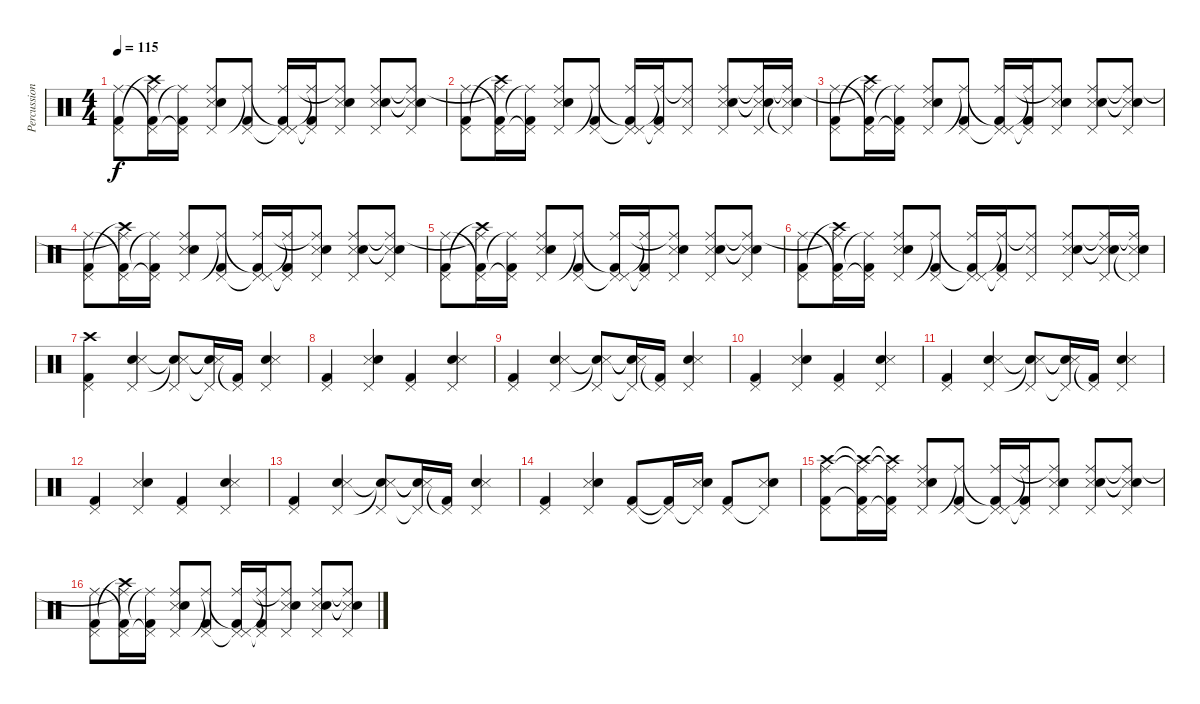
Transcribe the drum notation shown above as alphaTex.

\track ("Percussioni" "Percussion") {instrument percussion}
\staff {score}
\articulation defaults
\ts (4 4)
\tempo 115
\clef neutral
\ks c
("Pedal Hi-Hat (hit)" "Kick (hit) 2" "Ride (middle)").8{dy f} ("Pedal Hi-Hat (hit)" "Crash high (hit)"{t} "Kick (hit) 2"{t} "Ride (middle)"{t}).16 ("Pedal Hi-Hat (hit)"{t} "Kick (hit) 2" "Ride (middle)"{t}).16 ("Snare (side stick) 3" "Electric Snare (hit)" "Pedal Hi-Hat (hit)" "Ride (middle)").8 ("Pedal Hi-Hat (hit)" "Kick (hit) 2" "Ride (middle)"{t}).8 ("Pedal Hi-Hat (hit)"{t} "Pedal Hi-Hat (hit)" "Kick (hit) 2"{t} "Ride (middle)").16 ("Pedal Hi-Hat (hit)"{t} "Kick (hit) 2" "Ride (middle)"{t}).16 ("Snare (side stick) 3" "Pedal Hi-Hat (hit)" "Electric Snare (hit)" "Ride (middle)"{t}).8 ("Snare (side stick) 3" "Electric Snare (hit)" "Pedal Hi-Hat (hit)" "Ride (middle)").8 ("Snare (side stick) 3"{t} "Electric Snare (hit)"{t} "Pedal Hi-Hat (hit)" "Ride (middle)"{t}).8 |
("Pedal Hi-Hat (hit)" "Kick (hit) 2" "Ride (middle)").8 ("Pedal Hi-Hat (hit)" "Crash high (hit)"{t} "Kick (hit) 2"{t} "Ride (middle)"{t}).16 ("Pedal Hi-Hat (hit)"{t} "Kick (hit) 2" "Ride (middle)"{t}).16 ("Snare (side stick) 3" "Electric Snare (hit)" "Pedal Hi-Hat (hit)" "Ride (middle)").8 ("Pedal Hi-Hat (hit)" "Kick (hit) 2" "Ride (middle)"{t}).8 ("Pedal Hi-Hat (hit)"{t} "Pedal Hi-Hat (hit)" "Kick (hit) 2"{t} "Ride (middle)").16 ("Pedal Hi-Hat (hit)"{t} "Kick (hit) 2" "Ride (middle)"{t}).16 ("Snare (side stick) 3" "Pedal Hi-Hat (hit)" "Ride (middle)"{t}).8 ("Snare (side stick) 3" "Electric Snare (hit)" "Pedal Hi-Hat (hit)" "Ride (middle)").8 ("Snare (side stick) 3"{t} "Electric Snare (hit)"{t} "Pedal Hi-Hat (hit)" "Ride (middle)"{t}).16 ("Pedal Hi-Hat (hit)"{t} "Snare (side stick) 3" "Electric Snare (hit)" "Ride (middle)"{t}).16 |
("Pedal Hi-Hat (hit)" "Kick (hit) 2" "Ride (middle)").8 ("Pedal Hi-Hat (hit)" "Crash high (hit)"{t} "Kick (hit) 2"{t} "Ride (middle)"{t}).16 ("Pedal Hi-Hat (hit)"{t} "Kick (hit) 2" "Ride (middle)"{t}).16 ("Snare (side stick) 3" "Electric Snare (hit)" "Pedal Hi-Hat (hit)" "Ride (middle)").8 ("Pedal Hi-Hat (hit)" "Kick (hit) 2" "Ride (middle)"{t}).8 ("Pedal Hi-Hat (hit)"{t} "Pedal Hi-Hat (hit)" "Kick (hit) 2"{t} "Ride (middle)").16 ("Pedal Hi-Hat (hit)"{t} "Kick (hit) 2" "Ride (middle)"{t}).16 ("Snare (side stick) 3" "Pedal Hi-Hat (hit)" "Electric Snare (hit)" "Ride (middle)"{t}).8 ("Snare (side stick) 3" "Electric Snare (hit)" "Pedal Hi-Hat (hit)" "Ride (middle)").8 ("Snare (side stick) 3"{t} "Electric Snare (hit)"{t} "Pedal Hi-Hat (hit)" "Ride (middle)"{t}).8 |
("Pedal Hi-Hat (hit)" "Kick (hit) 2" "Ride (middle)").8 ("Pedal Hi-Hat (hit)" "Crash high (hit)"{t} "Kick (hit) 2"{t} "Ride (middle)"{t}).16 ("Pedal Hi-Hat (hit)"{t} "Kick (hit) 2" "Ride (middle)"{t}).16 ("Snare (side stick) 3" "Electric Snare (hit)" "Pedal Hi-Hat (hit)" "Ride (middle)").8 ("Pedal Hi-Hat (hit)" "Kick (hit) 2" "Ride (middle)"{t}).8 ("Pedal Hi-Hat (hit)"{t} "Pedal Hi-Hat (hit)" "Kick (hit) 2"{t} "Ride (middle)").16 ("Pedal Hi-Hat (hit)"{t} "Kick (hit) 2" "Ride (middle)"{t}).16 ("Snare (side stick) 3" "Pedal Hi-Hat (hit)" "Electric Snare (hit)" "Ride (middle)"{t}).8 ("Snare (side stick) 3" "Electric Snare (hit)" "Pedal Hi-Hat (hit)" "Ride (middle)").8 ("Snare (side stick) 3"{t} "Electric Snare (hit)"{t} "Pedal Hi-Hat (hit)" "Ride (middle)"{t}).8 |
("Pedal Hi-Hat (hit)" "Kick (hit) 2" "Ride (middle)").8 ("Pedal Hi-Hat (hit)" "Crash high (hit)"{t} "Kick (hit) 2"{t} "Ride (middle)"{t}).16 ("Pedal Hi-Hat (hit)"{t} "Kick (hit) 2" "Ride (middle)"{t}).16 ("Snare (side stick) 3" "Electric Snare (hit)" "Pedal Hi-Hat (hit)" "Ride (middle)").8 ("Pedal Hi-Hat (hit)" "Kick (hit) 2" "Ride (middle)"{t}).8 ("Pedal Hi-Hat (hit)"{t} "Pedal Hi-Hat (hit)" "Kick (hit) 2"{t} "Ride (middle)").16 ("Pedal Hi-Hat (hit)"{t} "Kick (hit) 2" "Ride (middle)"{t}).16 ("Snare (side stick) 3" "Pedal Hi-Hat (hit)" "Electric Snare (hit)" "Ride (middle)"{t}).8 ("Snare (side stick) 3" "Electric Snare (hit)" "Pedal Hi-Hat (hit)" "Ride (middle)").8 ("Snare (side stick) 3"{t} "Electric Snare (hit)"{t} "Pedal Hi-Hat (hit)" "Ride (middle)"{t}).8 |
("Pedal Hi-Hat (hit)" "Kick (hit) 2" "Ride (middle)").8 ("Pedal Hi-Hat (hit)" "Crash high (hit)"{t} "Kick (hit) 2"{t} "Ride (middle)"{t}).16 ("Pedal Hi-Hat (hit)"{t} "Kick (hit) 2" "Ride (middle)"{t}).16 ("Snare (side stick) 3" "Electric Snare (hit)" "Pedal Hi-Hat (hit)" "Ride (middle)").8 ("Pedal Hi-Hat (hit)" "Kick (hit) 2" "Ride (middle)"{t}).8 ("Pedal Hi-Hat (hit)"{t} "Pedal Hi-Hat (hit)" "Kick (hit) 2"{t} "Ride (middle)").16 ("Pedal Hi-Hat (hit)"{t} "Kick (hit) 2" "Ride (middle)"{t}).16 ("Snare (side stick) 3" "Pedal Hi-Hat (hit)" "Ride (middle)"{t}).8 ("Snare (side stick) 3" "Electric Snare (hit)" "Pedal Hi-Hat (hit)" "Ride (middle)").8 ("Snare (side stick) 3"{t} "Electric Snare (hit)"{t} "Pedal Hi-Hat (hit)" "Ride (middle)"{t}).16 ("Pedal Hi-Hat (hit)"{t} "Snare (side stick) 3" "Electric Snare (hit)" "Ride (middle)"{t}).16 |
("Kick (hit) 2" "Pedal Hi-Hat (hit)" "Crash high (hit)").4 ("Electric Snare (hit)" "Pedal Hi-Hat (hit)" "Snare (side stick) 3").4 ("Pedal Hi-Hat (hit)" "Electric Snare (hit)"{t} "Snare (side stick) 3"{t}).8 ("Pedal Hi-Hat (hit)"{t} "Electric Snare (hit)"{t} "Snare (side stick) 3"{t}).16 ("Kick (hit) 2" "Pedal Hi-Hat (hit)"{t}).16 ("Electric Snare (hit)" "Pedal Hi-Hat (hit)" "Snare (side stick) 3").4 |
("Kick (hit) 2" "Pedal Hi-Hat (hit)").4 ("Snare (side stick) 3" "Pedal Hi-Hat (hit)" "Electric Snare (hit)").4 ("Kick (hit) 2" "Pedal Hi-Hat (hit)").4 ("Electric Snare (hit)" "Pedal Hi-Hat (hit)" "Snare (side stick) 3").4 |
("Kick (hit) 2" "Pedal Hi-Hat (hit)").4 ("Electric Snare (hit)" "Pedal Hi-Hat (hit)" "Snare (side stick) 3").4 ("Pedal Hi-Hat (hit)" "Electric Snare (hit)"{t} "Snare (side stick) 3"{t}).8 ("Pedal Hi-Hat (hit)"{t} "Electric Snare (hit)"{t} "Snare (side stick) 3"{t}).16 ("Kick (hit) 2" "Pedal Hi-Hat (hit)"{t}).16 ("Electric Snare (hit)" "Pedal Hi-Hat (hit)" "Snare (side stick) 3").4 |
("Kick (hit) 2" "Pedal Hi-Hat (hit)").4 ("Snare (side stick) 3" "Pedal Hi-Hat (hit)" "Electric Snare (hit)").4 ("Kick (hit) 2" "Pedal Hi-Hat (hit)").4 ("Electric Snare (hit)" "Pedal Hi-Hat (hit)" "Snare (side stick) 3").4 |
("Kick (hit) 2" "Pedal Hi-Hat (hit)").4 ("Electric Snare (hit)" "Pedal Hi-Hat (hit)" "Snare (side stick) 3").4 ("Pedal Hi-Hat (hit)" "Electric Snare (hit)"{t} "Snare (side stick) 3"{t}).8 ("Pedal Hi-Hat (hit)"{t} "Electric Snare (hit)"{t} "Snare (side stick) 3"{t}).16 ("Kick (hit) 2" "Pedal Hi-Hat (hit)"{t}).16 ("Electric Snare (hit)" "Pedal Hi-Hat (hit)" "Snare (side stick) 3").4 |
("Kick (hit) 2" "Pedal Hi-Hat (hit)").4 ("Snare (side stick) 3" "Pedal Hi-Hat (hit)" "Electric Snare (hit)").4 ("Kick (hit) 2" "Pedal Hi-Hat (hit)").4 ("Electric Snare (hit)" "Pedal Hi-Hat (hit)" "Snare (side stick) 3").4 |
("Kick (hit) 2" "Pedal Hi-Hat (hit)").4 ("Electric Snare (hit)" "Pedal Hi-Hat (hit)" "Snare (side stick) 3").4 ("Pedal Hi-Hat (hit)" "Electric Snare (hit)"{t} "Snare (side stick) 3"{t}).8 ("Pedal Hi-Hat (hit)"{t} "Electric Snare (hit)"{t} "Snare (side stick) 3"{t}).16 ("Kick (hit) 2" "Pedal Hi-Hat (hit)"{t}).16 ("Electric Snare (hit)" "Pedal Hi-Hat (hit)" "Snare (side stick) 3").4 |
("Kick (hit) 2" "Pedal Hi-Hat (hit)").4 ("Snare (side stick) 3" "Pedal Hi-Hat (hit)" "Electric Snare (hit)").4 ("Kick (hit) 2" "Pedal Hi-Hat (hit)").8 ("Kick (hit) 2"{t} "Pedal Hi-Hat (hit)"{t}).16 ("Snare (side stick) 3" "Pedal Hi-Hat (hit)"{t} "Electric Snare (hit)").16 ("Kick (hit) 2" "Pedal Hi-Hat (hit)").8 ("Snare (side stick) 3" "Pedal Hi-Hat (hit)"{t} "Electric Snare (hit)").8 |
("Pedal Hi-Hat (hit)" "Crash high (hit)" "Kick (hit) 2" "Ride (middle)").8 ("Pedal Hi-Hat (hit)" "Crash high (hit)"{t} "Kick (hit) 2"{t} "Ride (middle)"{t}).16 ("Pedal Hi-Hat (hit)"{t} "Crash high (hit)"{t} "Kick (hit) 2" "Ride (middle)"{t}).16 ("Snare (side stick) 3" "Electric Snare (hit)" "Pedal Hi-Hat (hit)" "Ride (middle)").8 ("Pedal Hi-Hat (hit)" "Kick (hit) 2" "Ride (middle)"{t}).8 ("Pedal Hi-Hat (hit)"{t} "Pedal Hi-Hat (hit)" "Kick (hit) 2"{t} "Ride (middle)").16 ("Pedal Hi-Hat (hit)"{t} "Kick (hit) 2" "Ride (middle)"{t}).16 ("Snare (side stick) 3" "Pedal Hi-Hat (hit)" "Electric Snare (hit)" "Ride (middle)"{t}).8 ("Snare (side stick) 3" "Electric Snare (hit)" "Pedal Hi-Hat (hit)" "Ride (middle)").8 ("Snare (side stick) 3"{t} "Electric Snare (hit)"{t} "Pedal Hi-Hat (hit)" "Ride (middle)"{t}).8 |
("Pedal Hi-Hat (hit)" "Kick (hit) 2" "Ride (middle)").8 ("Pedal Hi-Hat (hit)" "Crash high (hit)"{t} "Kick (hit) 2"{t} "Ride (middle)"{t}).16 ("Pedal Hi-Hat (hit)"{t} "Kick (hit) 2" "Ride (middle)"{t}).16 ("Snare (side stick) 3" "Electric Snare (hit)" "Pedal Hi-Hat (hit)" "Ride (middle)").8 ("Pedal Hi-Hat (hit)" "Kick (hit) 2" "Ride (middle)"{t}).8 ("Pedal Hi-Hat (hit)"{t} "Pedal Hi-Hat (hit)" "Kick (hit) 2"{t} "Ride (middle)").16 ("Pedal Hi-Hat (hit)"{t} "Kick (hit) 2" "Ride (middle)"{t}).16 ("Snare (side stick) 3" "Pedal Hi-Hat (hit)" "Electric Snare (hit)" "Ride (middle)"{t}).8 ("Snare (side stick) 3" "Electric Snare (hit)" "Pedal Hi-Hat (hit)" "Ride (middle)").8 ("Snare (side stick) 3"{t} "Electric Snare (hit)"{t} "Pedal Hi-Hat (hit)" "Ride (middle)"{t}).8
